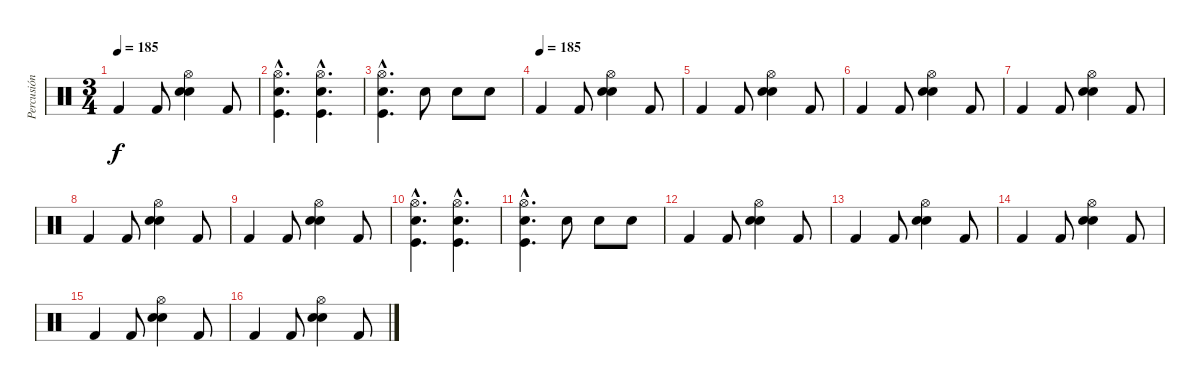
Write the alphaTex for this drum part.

\track ("Percusión" "Percusión") {instrument percussion}
\staff {score}
\articulation defaults
\ts (3 4)
\tempo 185
\clef neutral
\ks c "Kick (hit) 2".4{dy f} "Kick (hit) 2".8
("Hi-Hat (open)" "Electric Snare (hit)" "Snare (hit) 2").4 "Kick (hit) 2".8 |
("Hi-Hat (open)"{hac} "Electric Snare (hit)"{hac} "Kick (hit)"{hac}).4{d} ("Hi-Hat (open)"{hac} "Electric Snare (hit)"{hac} "Kick (hit)"{hac}).4{d} |
("Hi-Hat (open)"{hac} "Electric Snare (hit)"{hac} "Kick (hit)"{hac}).4{d} "Electric Snare (hit)".8 "Electric Snare (hit)".8 "Electric Snare (hit)".8 |
\tempo (185)
"Kick (hit) 2".4 "Kick (hit) 2".8 ("Hi-Hat (open)" "Electric Snare (hit)" "Snare (hit) 2").4 "Kick (hit) 2".8 |
"Kick (hit) 2".4 "Kick (hit) 2".8 ("Hi-Hat (open)" "Electric Snare (hit)" "Snare (hit) 2").4 "Kick (hit) 2".8 |
"Kick (hit) 2".4 "Kick (hit) 2".8 ("Hi-Hat (open)" "Electric Snare (hit)" "Snare (hit) 2").4 "Kick (hit) 2".8 |
"Kick (hit) 2".4 "Kick (hit) 2".8 ("Hi-Hat (open)" "Electric Snare (hit)" "Snare (hit) 2").4 "Kick (hit) 2".8 |
"Kick (hit) 2".4 "Kick (hit) 2".8 ("Hi-Hat (open)" "Electric Snare (hit)" "Snare (hit) 2").4 "Kick (hit) 2".8 |
"Kick (hit) 2".4 "Kick (hit) 2".8 ("Hi-Hat (open)" "Electric Snare (hit)" "Snare (hit) 2").4 "Kick (hit) 2".8 |
("Hi-Hat (open)"{hac} "Electric Snare (hit)"{hac} "Kick (hit)"{hac}).4{d} ("Hi-Hat (open)"{hac} "Electric Snare (hit)"{hac} "Kick (hit)"{hac}).4{d} |
("Hi-Hat (open)"{hac} "Electric Snare (hit)"{hac} "Kick (hit)"{hac}).4{d} "Electric Snare (hit)".8 "Electric Snare (hit)".8 "Electric Snare (hit)".8 |
"Kick (hit) 2".4 "Kick (hit) 2".8 ("Hi-Hat (open)" "Electric Snare (hit)" "Snare (hit) 2").4 "Kick (hit) 2".8 |
"Kick (hit) 2".4 "Kick (hit) 2".8 ("Hi-Hat (open)" "Electric Snare (hit)" "Snare (hit) 2").4 "Kick (hit) 2".8 |
"Kick (hit) 2".4 "Kick (hit) 2".8 ("Hi-Hat (open)" "Electric Snare (hit)" "Snare (hit) 2").4 "Kick (hit) 2".8 |
"Kick (hit) 2".4 "Kick (hit) 2".8 ("Hi-Hat (open)" "Electric Snare (hit)" "Snare (hit) 2").4 "Kick (hit) 2".8 |
"Kick (hit) 2".4 "Kick (hit) 2".8 ("Hi-Hat (open)" "Electric Snare (hit)" "Snare (hit) 2").4 "Kick (hit) 2".8
